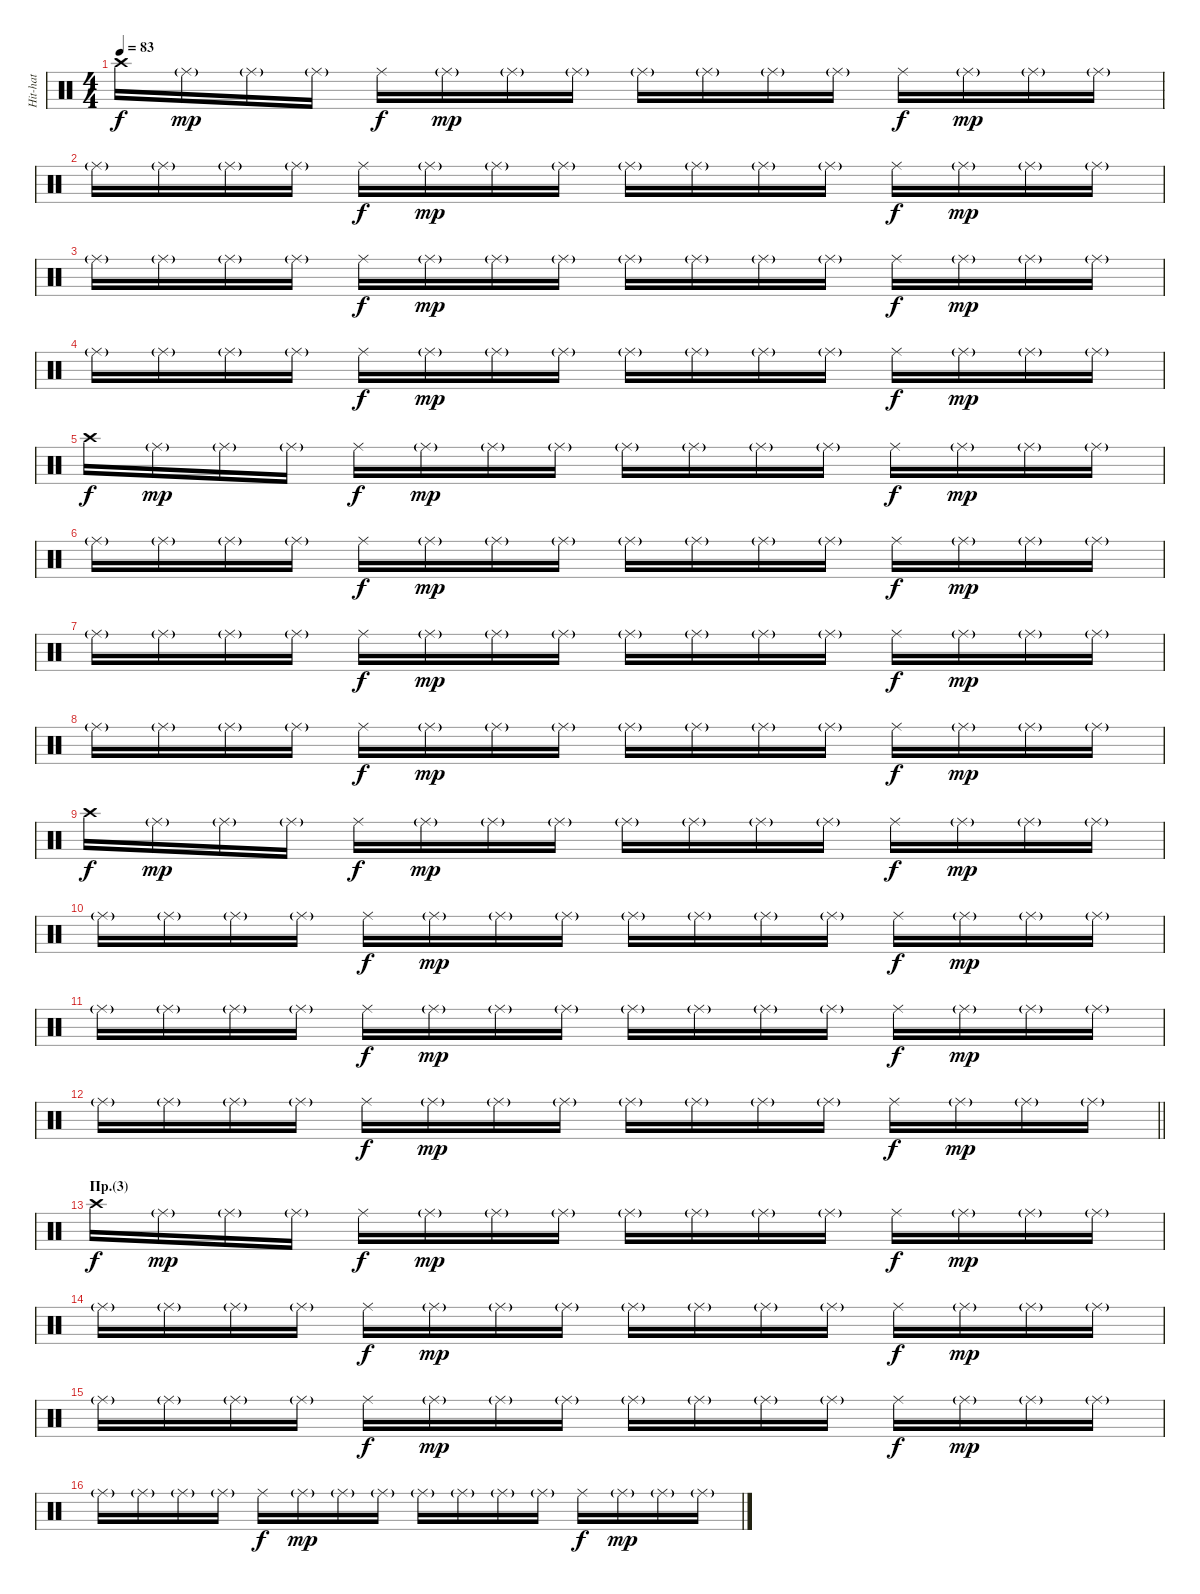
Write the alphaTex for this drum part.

\track ("Hit-hat" "Hit-hat") {instrument percussion}
\staff {score}
\articulation defaults
\ts (4 4)
\tempo 83
\clef neutral
\ks c "Crash high (hit)".16{dy f} "Ride (middle)"{g}.16{dy mp} "Ride (middle)"{g}.16 "Ride (middle)"{g}.16 "Ride (middle)".16{dy f} "Ride (middle)"{g}.16{dy mp} "Ride (middle)"{g}.16 "Ride (middle)"{g}.16 "Ride (middle)"{g}.16 "Ride (middle)"{g}.16 "Ride (middle)"{g}.16 "Ride (middle)"{g}.16 "Ride (middle)".16{dy f} "Ride (middle)"{g}.16{dy mp} "Ride (middle)"{g}.16 "Ride (middle)"{g}.16
|
"Ride (middle)"{g}.16 "Ride (middle)"{g}.16 "Ride (middle)"{g}.16 "Ride (middle)"{g}.16 "Ride (middle)".16{dy f} "Ride (middle)"{g}.16{dy mp} "Ride (middle)"{g}.16 "Ride (middle)"{g}.16 "Ride (middle)"{g}.16 "Ride (middle)"{g}.16 "Ride (middle)"{g}.16 "Ride (middle)"{g}.16 "Ride (middle)".16{dy f} "Ride (middle)"{g}.16{dy mp} "Ride (middle)"{g}.16 "Ride (middle)"{g}.16 |
"Ride (middle)"{g}.16 "Ride (middle)"{g}.16 "Ride (middle)"{g}.16 "Ride (middle)"{g}.16 "Ride (middle)".16{dy f} "Ride (middle)"{g}.16{dy mp} "Ride (middle)"{g}.16 "Ride (middle)"{g}.16 "Ride (middle)"{g}.16 "Ride (middle)"{g}.16 "Ride (middle)"{g}.16 "Ride (middle)"{g}.16 "Ride (middle)".16{dy f} "Ride (middle)"{g}.16{dy mp} "Ride (middle)"{g}.16 "Ride (middle)"{g}.16 |
"Ride (middle)"{g}.16 "Ride (middle)"{g}.16 "Ride (middle)"{g}.16 "Ride (middle)"{g}.16 "Ride (middle)".16{dy f} "Ride (middle)"{g}.16{dy mp} "Ride (middle)"{g}.16 "Ride (middle)"{g}.16 "Ride (middle)"{g}.16 "Ride (middle)"{g}.16 "Ride (middle)"{g}.16 "Ride (middle)"{g}.16 "Ride (middle)".16{dy f} "Ride (middle)"{g}.16{dy mp} "Ride (middle)"{g}.16 "Ride (middle)"{g}.16 |
"Crash high (hit)".16{dy f} "Ride (middle)"{g}.16{dy mp} "Ride (middle)"{g}.16 "Ride (middle)"{g}.16 "Ride (middle)".16{dy f} "Ride (middle)"{g}.16{dy mp} "Ride (middle)"{g}.16 "Ride (middle)"{g}.16 "Ride (middle)"{g}.16 "Ride (middle)"{g}.16 "Ride (middle)"{g}.16 "Ride (middle)"{g}.16 "Ride (middle)".16{dy f} "Ride (middle)"{g}.16{dy mp} "Ride (middle)"{g}.16 "Ride (middle)"{g}.16 |
"Ride (middle)"{g}.16 "Ride (middle)"{g}.16 "Ride (middle)"{g}.16 "Ride (middle)"{g}.16 "Ride (middle)".16{dy f} "Ride (middle)"{g}.16{dy mp} "Ride (middle)"{g}.16 "Ride (middle)"{g}.16 "Ride (middle)"{g}.16 "Ride (middle)"{g}.16 "Ride (middle)"{g}.16 "Ride (middle)"{g}.16 "Ride (middle)".16{dy f} "Ride (middle)"{g}.16{dy mp} "Ride (middle)"{g}.16 "Ride (middle)"{g}.16 |
"Ride (middle)"{g}.16 "Ride (middle)"{g}.16 "Ride (middle)"{g}.16 "Ride (middle)"{g}.16 "Ride (middle)".16{dy f} "Ride (middle)"{g}.16{dy mp} "Ride (middle)"{g}.16 "Ride (middle)"{g}.16 "Ride (middle)"{g}.16 "Ride (middle)"{g}.16 "Ride (middle)"{g}.16 "Ride (middle)"{g}.16 "Ride (middle)".16{dy f} "Ride (middle)"{g}.16{dy mp} "Ride (middle)"{g}.16 "Ride (middle)"{g}.16 |
"Ride (middle)"{g}.16 "Ride (middle)"{g}.16 "Ride (middle)"{g}.16 "Ride (middle)"{g}.16 "Ride (middle)".16{dy f} "Ride (middle)"{g}.16{dy mp} "Ride (middle)"{g}.16 "Ride (middle)"{g}.16 "Ride (middle)"{g}.16 "Ride (middle)"{g}.16 "Ride (middle)"{g}.16 "Ride (middle)"{g}.16 "Ride (middle)".16{dy f} "Ride (middle)"{g}.16{dy mp} "Ride (middle)"{g}.16 "Ride (middle)"{g}.16 |
"Crash high (hit)".16{dy f} "Ride (middle)"{g}.16{dy mp} "Ride (middle)"{g}.16 "Ride (middle)"{g}.16 "Ride (middle)".16{dy f} "Ride (middle)"{g}.16{dy mp} "Ride (middle)"{g}.16 "Ride (middle)"{g}.16 "Ride (middle)"{g}.16 "Ride (middle)"{g}.16 "Ride (middle)"{g}.16 "Ride (middle)"{g}.16 "Ride (middle)".16{dy f} "Ride (middle)"{g}.16{dy mp} "Ride (middle)"{g}.16 "Ride (middle)"{g}.16 |
"Ride (middle)"{g}.16 "Ride (middle)"{g}.16 "Ride (middle)"{g}.16 "Ride (middle)"{g}.16 "Ride (middle)".16{dy f} "Ride (middle)"{g}.16{dy mp} "Ride (middle)"{g}.16 "Ride (middle)"{g}.16 "Ride (middle)"{g}.16 "Ride (middle)"{g}.16 "Ride (middle)"{g}.16 "Ride (middle)"{g}.16 "Ride (middle)".16{dy f} "Ride (middle)"{g}.16{dy mp} "Ride (middle)"{g}.16 "Ride (middle)"{g}.16 |
"Ride (middle)"{g}.16 "Ride (middle)"{g}.16 "Ride (middle)"{g}.16 "Ride (middle)"{g}.16 "Ride (middle)".16{dy f} "Ride (middle)"{g}.16{dy mp} "Ride (middle)"{g}.16 "Ride (middle)"{g}.16 "Ride (middle)"{g}.16 "Ride (middle)"{g}.16 "Ride (middle)"{g}.16 "Ride (middle)"{g}.16 "Ride (middle)".16{dy f} "Ride (middle)"{g}.16{dy mp} "Ride (middle)"{g}.16 "Ride (middle)"{g}.16 |
\barLineRight lightlight "Ride (middle)"{g}.16 "Ride (middle)"{g}.16 "Ride (middle)"{g}.16 "Ride (middle)"{g}.16 "Ride (middle)".16{dy f} "Ride (middle)"{g}.16{dy mp} "Ride (middle)"{g}.16 "Ride (middle)"{g}.16 "Ride (middle)"{g}.16 "Ride (middle)"{g}.16 "Ride (middle)"{g}.16 "Ride (middle)"{g}.16 "Ride (middle)".16{dy f} "Ride (middle)"{g}.16{dy mp} "Ride (middle)"{g}.16 "Ride (middle)"{g}.16
|
\section ("" "Пр.(3)")
"Crash high (hit)".16{dy f} "Ride (middle)"{g}.16{dy mp} "Ride (middle)"{g}.16 "Ride (middle)"{g}.16 "Ride (middle)".16{dy f} "Ride (middle)"{g}.16{dy mp} "Ride (middle)"{g}.16 "Ride (middle)"{g}.16 "Ride (middle)"{g}.16 "Ride (middle)"{g}.16 "Ride (middle)"{g}.16 "Ride (middle)"{g}.16 "Ride (middle)".16{dy f} "Ride (middle)"{g}.16{dy mp} "Ride (middle)"{g}.16 "Ride (middle)"{g}.16 |
"Ride (middle)"{g}.16 "Ride (middle)"{g}.16 "Ride (middle)"{g}.16 "Ride (middle)"{g}.16 "Ride (middle)".16{dy f} "Ride (middle)"{g}.16{dy mp} "Ride (middle)"{g}.16 "Ride (middle)"{g}.16 "Ride (middle)"{g}.16 "Ride (middle)"{g}.16 "Ride (middle)"{g}.16 "Ride (middle)"{g}.16 "Ride (middle)".16{dy f} "Ride (middle)"{g}.16{dy mp} "Ride (middle)"{g}.16 "Ride (middle)"{g}.16 |
"Ride (middle)"{g}.16 "Ride (middle)"{g}.16 "Ride (middle)"{g}.16 "Ride (middle)"{g}.16 "Ride (middle)".16{dy f} "Ride (middle)"{g}.16{dy mp} "Ride (middle)"{g}.16 "Ride (middle)"{g}.16 "Ride (middle)"{g}.16 "Ride (middle)"{g}.16 "Ride (middle)"{g}.16 "Ride (middle)"{g}.16 "Ride (middle)".16{dy f} "Ride (middle)"{g}.16{dy mp} "Ride (middle)"{g}.16 "Ride (middle)"{g}.16 |
"Ride (middle)"{g}.16 "Ride (middle)"{g}.16 "Ride (middle)"{g}.16 "Ride (middle)"{g}.16 "Ride (middle)".16{dy f} "Ride (middle)"{g}.16{dy mp} "Ride (middle)"{g}.16 "Ride (middle)"{g}.16 "Ride (middle)"{g}.16 "Ride (middle)"{g}.16 "Ride (middle)"{g}.16 "Ride (middle)"{g}.16 "Ride (middle)".16{dy f} "Ride (middle)"{g}.16{dy mp} "Ride (middle)"{g}.16 "Ride (middle)"{g}.16
